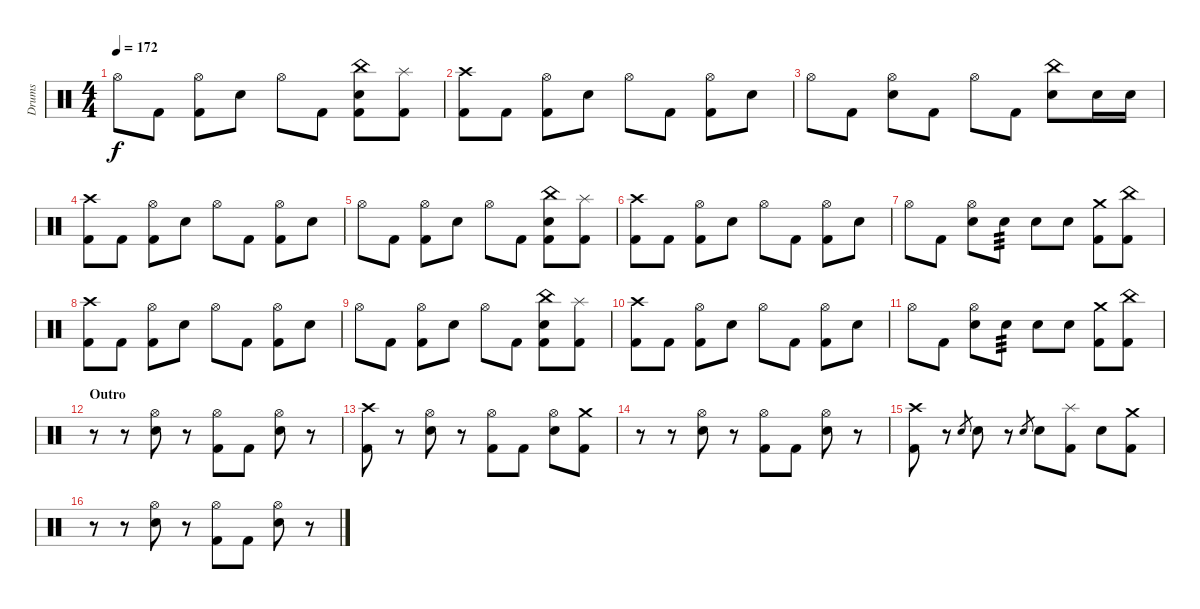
\track ("Drums" "Drums") {instrument percussion}
\staff {score}
\articulation defaults
\ts (4 4)
\tempo 172
\clef neutral
\ks c "Hi-Hat (open)".8{dy f} "Kick (hit) 2".8
("Hi-Hat (open)" "Kick (hit) 2").8 "Electric Snare (hit)".8 "Hi-Hat (open)".8 "Kick (hit) 2".8 ("China (hit)" "Electric Snare (hit)" "Kick (hit) 2").8 ("Splash (hit)" "Kick (hit) 2").8 |
("Crash high (hit)" "Kick (hit) 2").8 "Kick (hit) 2".8 ("Hi-Hat (open)" "Kick (hit) 2").8 "Electric Snare (hit)".8 "Hi-Hat (open)".8 "Kick (hit) 2".8 ("Hi-Hat (open)" "Kick (hit) 2").8 "Electric Snare (hit)".8 |
"Hi-Hat (open)".8 "Kick (hit) 2".8 ("Hi-Hat (open)" "Electric Snare (hit)").8 "Kick (hit) 2".8 "Hi-Hat (open)".8 "Kick (hit) 2".8 ("China (hit)" "Electric Snare (hit)").8 "Electric Snare (hit)".16 "Electric Snare (hit)".16 |
("Crash high (hit)" "Kick (hit) 2").8 "Kick (hit) 2".8 ("Hi-Hat (open)" "Kick (hit) 2").8 "Electric Snare (hit)".8 "Hi-Hat (open)".8 "Kick (hit) 2".8 ("Hi-Hat (open)" "Kick (hit) 2").8 "Electric Snare (hit)".8 |
"Hi-Hat (open)".8 "Kick (hit) 2".8 ("Hi-Hat (open)" "Kick (hit) 2").8 "Electric Snare (hit)".8 "Hi-Hat (open)".8 "Kick (hit) 2".8 ("China (hit)" "Electric Snare (hit)" "Kick (hit) 2").8 ("Splash (hit)" "Kick (hit) 2").8 |
("Crash high (hit)" "Kick (hit) 2").8 "Kick (hit) 2".8 ("Hi-Hat (open)" "Kick (hit) 2").8 "Electric Snare (hit)".8 "Hi-Hat (open)".8 "Kick (hit) 2".8 ("Hi-Hat (open)" "Kick (hit) 2").8 "Electric Snare (hit)".8 |
"Hi-Hat (open)".8 "Kick (hit) 2".8 ("Hi-Hat (open)" "Electric Snare (hit)").8 "Electric Snare (hit)".8{tp 3} "Electric Snare (hit)".8 "Electric Snare (hit)".8 ("Crash medium (hit)" "Kick (hit) 2").8 ("China (hit)" "Kick (hit) 2").8 |
("Crash high (hit)" "Kick (hit) 2").8 "Kick (hit) 2".8 ("Hi-Hat (open)" "Kick (hit) 2").8 "Electric Snare (hit)".8 "Hi-Hat (open)".8 "Kick (hit) 2".8 ("Hi-Hat (open)" "Kick (hit) 2").8 "Electric Snare (hit)".8 |
"Hi-Hat (open)".8 "Kick (hit) 2".8 ("Hi-Hat (open)" "Kick (hit) 2").8 "Electric Snare (hit)".8 "Hi-Hat (open)".8 "Kick (hit) 2".8 ("China (hit)" "Electric Snare (hit)" "Kick (hit) 2").8 ("Splash (hit)" "Kick (hit) 2").8 |
("Crash high (hit)" "Kick (hit) 2").8 "Kick (hit) 2".8 ("Hi-Hat (open)" "Kick (hit) 2").8 "Electric Snare (hit)".8 "Hi-Hat (open)".8 "Kick (hit) 2".8 ("Hi-Hat (open)" "Kick (hit) 2").8 "Electric Snare (hit)".8 |
"Hi-Hat (open)".8 "Kick (hit) 2".8 ("Hi-Hat (open)" "Electric Snare (hit)").8 "Electric Snare (hit)".8{tp 3} "Electric Snare (hit)".8 "Electric Snare (hit)".8 ("Crash medium (hit)" "Kick (hit) 2").8 ("China (hit)" "Kick (hit) 2").8 |
\section ("" "Outro")
r.8 r.8 ("Hi-Hat (open)" "Electric Snare (hit)").8 r.8 ("Hi-Hat (open)" "Kick (hit) 2").8 "Kick (hit) 2".8 ("Hi-Hat (open)" "Electric Snare (hit)").8 r.8 |
("Crash high (hit)" "Kick (hit) 2").8 r.8 ("Hi-Hat (open)" "Electric Snare (hit)").8 r.8 ("Hi-Hat (open)" "Kick (hit) 2").8 "Kick (hit) 2".8 ("Hi-Hat (open)" "Electric Snare (hit)").8 ("Crash medium (hit)" "Kick (hit) 2").8 |
r.8 r.8 ("Hi-Hat (open)" "Electric Snare (hit)").8 r.8 ("Hi-Hat (open)" "Kick (hit) 2").8 "Kick (hit) 2".8 ("Hi-Hat (open)" "Electric Snare (hit)").8 r.8 |
("Crash high (hit)" "Kick (hit) 2").8 r.8 "Electric Snare (hit)".8{gr} "Electric Snare (hit)".8 r.8 "Electric Snare (hit)".8{gr} "Electric Snare (hit)".8 ("Splash (hit)" "Kick (hit) 2").8 "Electric Snare (hit)".8 ("Crash medium (hit)" "Kick (hit) 2").8 |
r.8 r.8 ("Hi-Hat (open)" "Electric Snare (hit)").8 r.8 ("Hi-Hat (open)" "Kick (hit) 2").8 "Kick (hit) 2".8 ("Hi-Hat (open)" "Electric Snare (hit)").8 r.8
